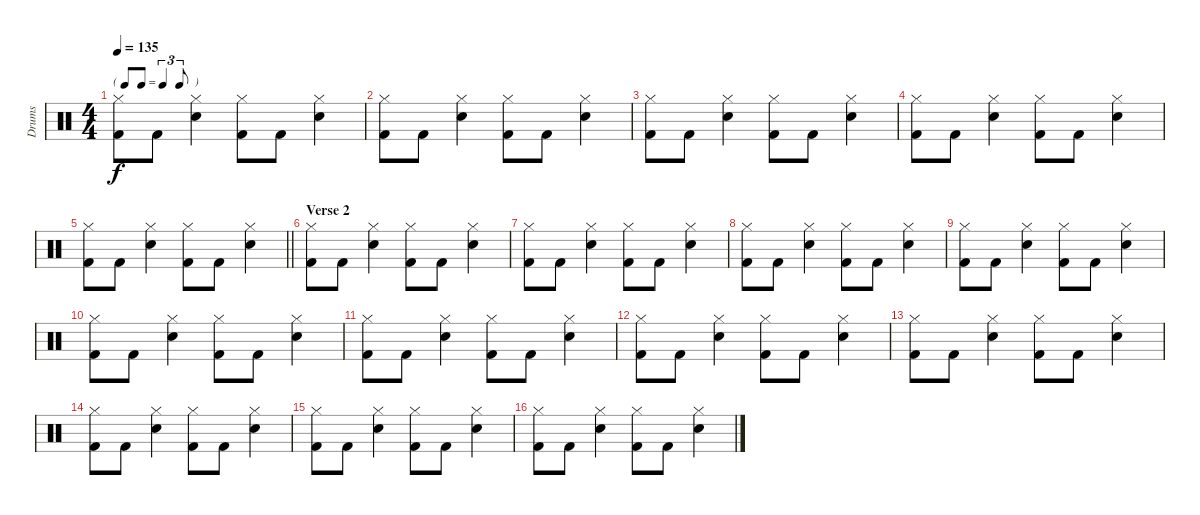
\track ("Drums" "Drums") {instrument percussion}
\staff {score}
\articulation defaults
\ts (4 4)
\tf triplet8th
\tempo 135
\clef neutral
\ks c
("Hi-Hat (closed)" "Kick (hit) 2").8{dy f} "Kick (hit) 2".8 ("Hi-Hat (closed)" "Snare (hit) 2").4 ("Hi-Hat (closed)" "Kick (hit) 2").8 "Kick (hit) 2".8 ("Hi-Hat (closed)" "Snare (hit) 2").4 |
("Hi-Hat (closed)" "Kick (hit) 2").8 "Kick (hit) 2".8 ("Hi-Hat (closed)" "Snare (hit) 2").4 ("Hi-Hat (closed)" "Kick (hit) 2").8 "Kick (hit) 2".8 ("Hi-Hat (closed)" "Snare (hit) 2").4 |
("Hi-Hat (closed)" "Kick (hit) 2").8 "Kick (hit) 2".8 ("Hi-Hat (closed)" "Snare (hit) 2").4 ("Hi-Hat (closed)" "Kick (hit) 2").8 "Kick (hit) 2".8 ("Hi-Hat (closed)" "Snare (hit) 2").4 |
("Hi-Hat (closed)" "Kick (hit) 2").8 "Kick (hit) 2".8 ("Hi-Hat (closed)" "Snare (hit) 2").4 ("Hi-Hat (closed)" "Kick (hit) 2").8 "Kick (hit) 2".8 ("Hi-Hat (closed)" "Snare (hit) 2").4 |
\barLineRight lightlight
("Hi-Hat (closed)" "Kick (hit) 2").8 "Kick (hit) 2".8 ("Hi-Hat (closed)" "Snare (hit) 2").4 ("Hi-Hat (closed)" "Kick (hit) 2").8 "Kick (hit) 2".8 ("Hi-Hat (closed)" "Snare (hit) 2").4 |
\section ("" "Verse 2")
("Hi-Hat (closed)" "Kick (hit) 2").8 "Kick (hit) 2".8 ("Hi-Hat (closed)" "Snare (hit) 2").4 ("Hi-Hat (closed)" "Kick (hit) 2").8 "Kick (hit) 2".8 ("Hi-Hat (closed)" "Snare (hit) 2").4 |
("Hi-Hat (closed)" "Kick (hit) 2").8 "Kick (hit) 2".8 ("Hi-Hat (closed)" "Snare (hit) 2").4 ("Hi-Hat (closed)" "Kick (hit) 2").8 "Kick (hit) 2".8 ("Hi-Hat (closed)" "Snare (hit) 2").4 |
("Hi-Hat (closed)" "Kick (hit) 2").8 "Kick (hit) 2".8 ("Hi-Hat (closed)" "Snare (hit) 2").4 ("Hi-Hat (closed)" "Kick (hit) 2").8 "Kick (hit) 2".8 ("Hi-Hat (closed)" "Snare (hit) 2").4 |
("Hi-Hat (closed)" "Kick (hit) 2").8 "Kick (hit) 2".8 ("Hi-Hat (closed)" "Snare (hit) 2").4 ("Hi-Hat (closed)" "Kick (hit) 2").8 "Kick (hit) 2".8 ("Hi-Hat (closed)" "Snare (hit) 2").4 |
("Hi-Hat (closed)" "Kick (hit) 2").8 "Kick (hit) 2".8 ("Hi-Hat (closed)" "Snare (hit) 2").4 ("Hi-Hat (closed)" "Kick (hit) 2").8 "Kick (hit) 2".8 ("Hi-Hat (closed)" "Snare (hit) 2").4 |
("Hi-Hat (closed)" "Kick (hit) 2").8 "Kick (hit) 2".8 ("Hi-Hat (closed)" "Snare (hit) 2").4 ("Hi-Hat (closed)" "Kick (hit) 2").8 "Kick (hit) 2".8 ("Hi-Hat (closed)" "Snare (hit) 2").4 |
("Hi-Hat (closed)" "Kick (hit) 2").8 "Kick (hit) 2".8 ("Hi-Hat (closed)" "Snare (hit) 2").4 ("Hi-Hat (closed)" "Kick (hit) 2").8 "Kick (hit) 2".8 ("Hi-Hat (closed)" "Snare (hit) 2").4 |
("Hi-Hat (closed)" "Kick (hit) 2").8 "Kick (hit) 2".8 ("Hi-Hat (closed)" "Snare (hit) 2").4 ("Hi-Hat (closed)" "Kick (hit) 2").8 "Kick (hit) 2".8 ("Hi-Hat (closed)" "Snare (hit) 2").4 |
("Hi-Hat (closed)" "Kick (hit) 2").8 "Kick (hit) 2".8 ("Hi-Hat (closed)" "Snare (hit) 2").4 ("Hi-Hat (closed)" "Kick (hit) 2").8 "Kick (hit) 2".8 ("Hi-Hat (closed)" "Snare (hit) 2").4 |
("Hi-Hat (closed)" "Kick (hit) 2").8 "Kick (hit) 2".8 ("Hi-Hat (closed)" "Snare (hit) 2").4 ("Hi-Hat (closed)" "Kick (hit) 2").8 "Kick (hit) 2".8 ("Hi-Hat (closed)" "Snare (hit) 2").4 |
("Hi-Hat (closed)" "Kick (hit) 2").8 "Kick (hit) 2".8 ("Hi-Hat (closed)" "Snare (hit) 2").4 ("Hi-Hat (closed)" "Kick (hit) 2").8 "Kick (hit) 2".8 ("Hi-Hat (closed)" "Snare (hit) 2").4
